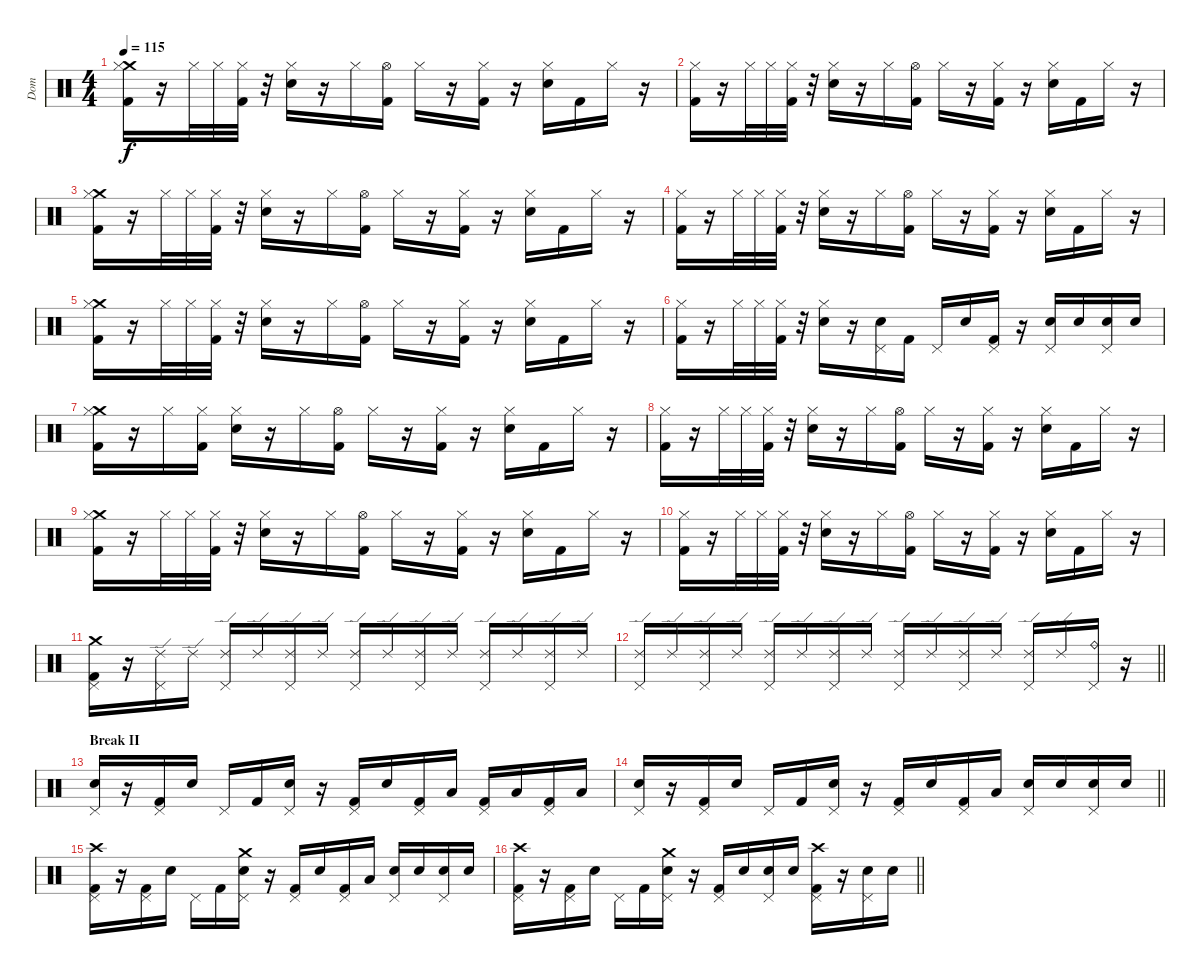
\track ("Dom" "Dom") {instrument percussion}
\staff {score}
\articulation defaults
\ts (4 4)
\tempo 115
\clef neutral
\ks c
("Crash medium (hit)" "Hi-Hat (closed)" "Kick (hit) 2").16{dy f} r.16 "Hi-Hat (closed)".32 "Hi-Hat (closed)".32 ("Hi-Hat (closed)" "Kick (hit) 2").32 r.32 ("Snare (hit) 2" "Hi-Hat (closed)").16 r.16 "Hi-Hat (closed)".16 ("Hi-Hat (open)" "Kick (hit) 2").16 "Hi-Hat (closed)".16 r.16 ("Hi-Hat (closed)" "Kick (hit) 2").16 r.16 ("Snare (hit) 2" "Hi-Hat (closed)").16 "Kick (hit) 2".16 "Hi-Hat (closed)".16 r.16 |
("Hi-Hat (closed)" "Kick (hit) 2").16 r.16 "Hi-Hat (closed)".32 "Hi-Hat (closed)".32 ("Hi-Hat (closed)" "Kick (hit) 2").32 r.32 ("Snare (hit) 2" "Hi-Hat (closed)").16 r.16 "Hi-Hat (closed)".16 ("Hi-Hat (open)" "Kick (hit) 2").16 "Hi-Hat (closed)".16 r.16 ("Hi-Hat (closed)" "Kick (hit) 2").16 r.16 ("Snare (hit) 2" "Hi-Hat (closed)").16 "Kick (hit) 2".16 "Hi-Hat (closed)".16 r.16 |
("Crash medium (hit)" "Hi-Hat (closed)" "Kick (hit) 2").16 r.16 "Hi-Hat (closed)".32 "Hi-Hat (closed)".32 ("Hi-Hat (closed)" "Kick (hit) 2").32 r.32 ("Snare (hit) 2" "Hi-Hat (closed)").16 r.16 "Hi-Hat (closed)".16 ("Hi-Hat (open)" "Kick (hit) 2").16 "Hi-Hat (closed)".16 r.16 ("Hi-Hat (closed)" "Kick (hit) 2").16 r.16 ("Snare (hit) 2" "Hi-Hat (closed)").16 "Kick (hit) 2".16 "Hi-Hat (closed)".16 r.16 |
("Hi-Hat (closed)" "Kick (hit) 2").16 r.16 "Hi-Hat (closed)".32 "Hi-Hat (closed)".32 ("Hi-Hat (closed)" "Kick (hit) 2").32 r.32 ("Snare (hit) 2" "Hi-Hat (closed)").16 r.16 "Hi-Hat (closed)".16 ("Hi-Hat (open)" "Kick (hit) 2").16 "Hi-Hat (closed)".16 r.16 ("Hi-Hat (closed)" "Kick (hit) 2").16 r.16 ("Snare (hit) 2" "Hi-Hat (closed)").16 "Kick (hit) 2".16 "Hi-Hat (closed)".16 r.16 |
("Crash medium (hit)" "Hi-Hat (closed)" "Kick (hit) 2").16 r.16 "Hi-Hat (closed)".32 "Hi-Hat (closed)".32 ("Hi-Hat (closed)" "Kick (hit) 2").32 r.32 ("Snare (hit) 2" "Hi-Hat (closed)").16 r.16 "Hi-Hat (closed)".16 ("Hi-Hat (open)" "Kick (hit) 2").16 "Hi-Hat (closed)".16 r.16 ("Hi-Hat (closed)" "Kick (hit) 2").16 r.16 ("Snare (hit) 2" "Hi-Hat (closed)").16 "Kick (hit) 2".16 "Hi-Hat (closed)".16 r.16 |
("Hi-Hat (closed)" "Kick (hit) 2").16 r.16 "Hi-Hat (closed)".32 "Hi-Hat (closed)".32 ("Hi-Hat (closed)" "Kick (hit) 2").32 r.32 ("Snare (hit) 2" "Hi-Hat (closed)").16 r.16 ("Snare (hit) 2" "Pedal Hi-Hat (hit)").16 "Kick (hit) 2".16 "Pedal Hi-Hat (hit)".16 "Snare (hit) 2".16 ("Pedal Hi-Hat (hit)" "Kick (hit) 2").16 r.16 ("Snare (hit) 2" "Pedal Hi-Hat (hit)").16 "Snare (hit) 2".16 ("Snare (hit) 2" "Pedal Hi-Hat (hit)").16 "Snare (hit) 2".16 |
("Crash medium (hit)" "Hi-Hat (closed)" "Kick (hit) 2").16 r.16 "Hi-Hat (closed)".16 ("Hi-Hat (closed)" "Kick (hit) 2").16 ("Snare (hit) 2" "Hi-Hat (closed)").16 r.16 "Hi-Hat (closed)".16 ("Hi-Hat (open)" "Kick (hit) 2").16 "Hi-Hat (closed)".16 r.16 ("Hi-Hat (closed)" "Kick (hit) 2").16 r.16 ("Snare (hit) 2" "Hi-Hat (closed)").16 "Kick (hit) 2".16 "Hi-Hat (closed)".16 r.16 |
("Hi-Hat (closed)" "Kick (hit) 2").16 r.16 "Hi-Hat (closed)".32 "Hi-Hat (closed)".32 ("Hi-Hat (closed)" "Kick (hit) 2").32 r.32 ("Snare (hit) 2" "Hi-Hat (closed)").16 r.16 "Hi-Hat (closed)".16 ("Hi-Hat (open)" "Kick (hit) 2").16 "Hi-Hat (closed)".16 r.16 ("Hi-Hat (closed)" "Kick (hit) 2").16 r.16 ("Snare (hit) 2" "Hi-Hat (closed)").16 "Kick (hit) 2".16 "Hi-Hat (closed)".16 r.16 |
("Crash medium (hit)" "Hi-Hat (closed)" "Kick (hit) 2").16 r.16 "Hi-Hat (closed)".32 "Hi-Hat (closed)".32 ("Hi-Hat (closed)" "Kick (hit) 2").32 r.32 ("Snare (hit) 2" "Hi-Hat (closed)").16 r.16 "Hi-Hat (closed)".16 ("Hi-Hat (open)" "Kick (hit) 2").16 "Hi-Hat (closed)".16 r.16 ("Hi-Hat (closed)" "Kick (hit) 2").16 r.16 ("Snare (hit) 2" "Hi-Hat (closed)").16 "Kick (hit) 2".16 "Hi-Hat (closed)".16 r.16 |
("Hi-Hat (closed)" "Kick (hit) 2").16 r.16 "Hi-Hat (closed)".32 "Hi-Hat (closed)".32 ("Hi-Hat (closed)" "Kick (hit) 2").32 r.32 ("Snare (hit) 2" "Hi-Hat (closed)").16 r.16 "Hi-Hat (closed)".16 ("Hi-Hat (open)" "Kick (hit) 2").16 "Hi-Hat (closed)".16 r.16 ("Hi-Hat (closed)" "Kick (hit) 2").16 r.16 ("Snare (hit) 2" "Hi-Hat (closed)").16 "Kick (hit) 2".16 "Hi-Hat (closed)".16 r.16 |
("Crash medium (hit)" "Pedal Hi-Hat (hit)" "Kick (hit) 2").16 r.16 ("Ride (edge) 2" "Pedal Hi-Hat (hit)").16 "Ride (edge) 2".16 ("Ride (edge) 2" "Pedal Hi-Hat (hit)").16 "Ride (edge) 2".16 ("Ride (edge) 2" "Pedal Hi-Hat (hit)").16 "Ride (edge) 2".16 ("Ride (edge) 2" "Pedal Hi-Hat (hit)").16 "Ride (edge) 2".16 ("Ride (edge) 2" "Pedal Hi-Hat (hit)").16 "Ride (edge) 2".16 ("Ride (edge) 2" "Pedal Hi-Hat (hit)").16 "Ride (edge) 2".16 ("Ride (edge) 2" "Pedal Hi-Hat (hit)").16 "Ride (edge) 2".16 |
\barLineRight lightlight
("Ride (edge) 2" "Pedal Hi-Hat (hit)").16 "Ride (edge) 2".16 ("Ride (edge) 2" "Pedal Hi-Hat (hit)").16 "Ride (edge) 2".16 ("Ride (edge) 2" "Pedal Hi-Hat (hit)").16 "Ride (edge) 2".16 ("Ride (edge) 2" "Pedal Hi-Hat (hit)").16 "Ride (edge) 2".16 ("Ride (edge) 2" "Pedal Hi-Hat (hit)").16 "Ride (edge) 2".16 ("Ride (edge) 2" "Pedal Hi-Hat (hit)").16 "Ride (edge) 2".16 ("Ride (edge) 2" "Pedal Hi-Hat (hit)").16 "Ride (edge) 2".16 ("Ride (bell)" "Pedal Hi-Hat (hit)").16 r.16 |
\section ("" "Break II")
("Snare (hit) 2" "Pedal Hi-Hat (hit)").16 r.16 ("Pedal Hi-Hat (hit)" "Kick (hit) 2").16 "Snare (hit) 2".16 "Pedal Hi-Hat (hit)".16 "Kick (hit) 2".16 ("Snare (hit) 2" "Pedal Hi-Hat (hit)").16 r.16 ("Pedal Hi-Hat (hit)" "Kick (hit) 2").16 "Snare (hit) 2".16 ("Pedal Hi-Hat (hit)" "Kick (hit) 2").16 "Low Floor Tom (hit)".16 ("Pedal Hi-Hat (hit)" "Kick (hit) 2").16 "Low Floor Tom (hit)".16 ("Pedal Hi-Hat (hit)" "Kick (hit) 2").16 "Low Floor Tom (hit)".16 |
\barLineRight lightlight
("Snare (hit) 2" "Pedal Hi-Hat (hit)").16 r.16 ("Pedal Hi-Hat (hit)" "Kick (hit) 2").16 "Snare (hit) 2".16 "Pedal Hi-Hat (hit)".16 "Kick (hit) 2".16 ("Snare (hit) 2" "Pedal Hi-Hat (hit)").16 r.16 ("Pedal Hi-Hat (hit)" "Kick (hit) 2").16 "Snare (hit) 2".16 ("Pedal Hi-Hat (hit)" "Kick (hit) 2").16 "Low Floor Tom (hit)".16 ("Snare (hit) 2" "Pedal Hi-Hat (hit)").16 "Snare (hit) 2".16 ("Snare (hit) 2" "Pedal Hi-Hat (hit)").16 "Snare (hit) 2".16 |
("Crash high (hit)" "Pedal Hi-Hat (hit)" "Kick (hit) 2").16 r.16 ("Pedal Hi-Hat (hit)" "Kick (hit) 2").16 "Snare (hit) 2".16 "Pedal Hi-Hat (hit)".16 "Kick (hit) 2".16 ("Crash medium (hit)" "Snare (hit) 2" "Pedal Hi-Hat (hit)").16 r.16 ("Pedal Hi-Hat (hit)" "Kick (hit) 2").16 "Snare (hit) 2".16 ("Pedal Hi-Hat (hit)" "Kick (hit) 2").16 "Low Floor Tom (hit)".16 ("Snare (hit) 2" "Pedal Hi-Hat (hit)").16 "Snare (hit) 2".16 ("Snare (hit) 2" "Pedal Hi-Hat (hit)").16 "Snare (hit) 2".16 |
\barLineRight lightlight
("Crash high (hit)" "Pedal Hi-Hat (hit)" "Kick (hit) 2").16 r.16 ("Pedal Hi-Hat (hit)" "Kick (hit) 2").16 "Snare (hit) 2".16 "Pedal Hi-Hat (hit)".16 "Kick (hit) 2".16 ("Crash medium (hit)" "Snare (hit) 2" "Pedal Hi-Hat (hit)").16 r.16 ("Pedal Hi-Hat (hit)" "Kick (hit) 2").16 "Snare (hit) 2".16 ("Snare (hit) 2" "Pedal Hi-Hat (hit)").16 "Snare (hit) 2".16 ("Crash high (hit)" "Pedal Hi-Hat (hit)" "Kick (hit) 2").16 r.16 ("Snare (hit) 2" "Pedal Hi-Hat (hit)").16 "Snare (hit) 2".16
